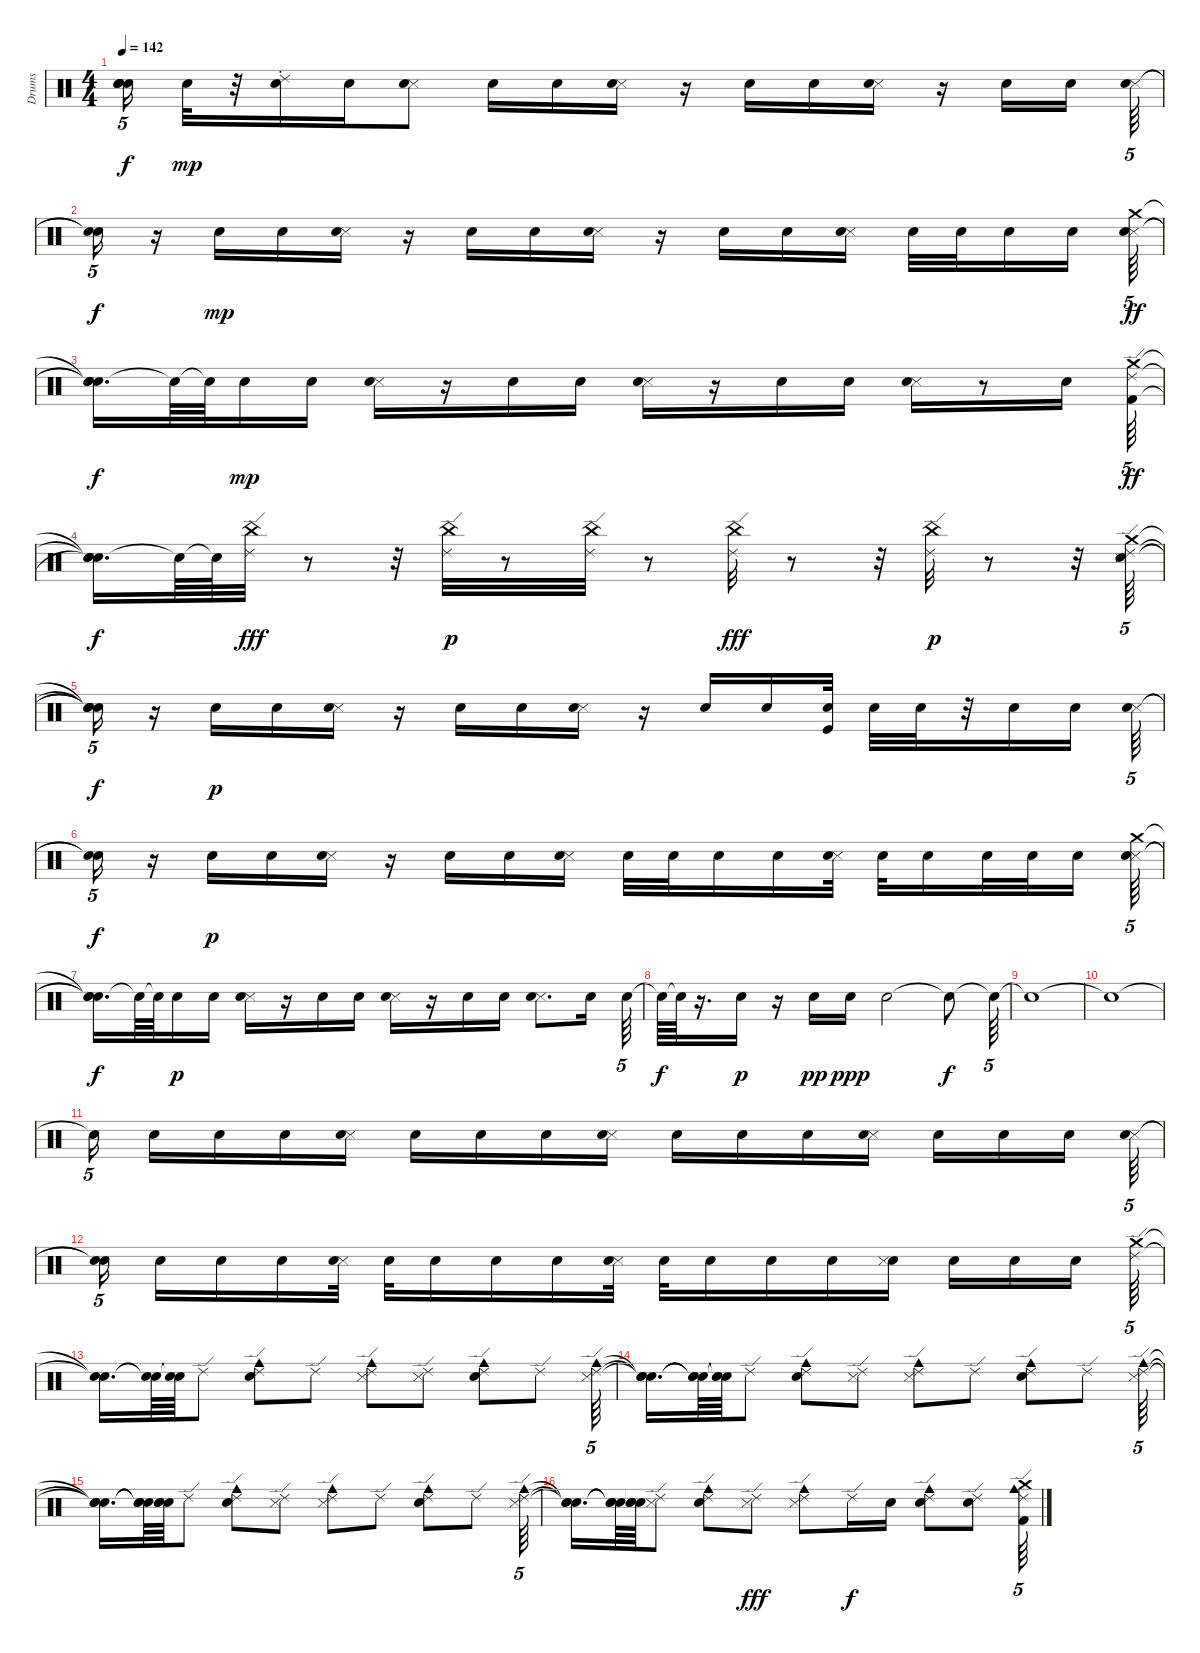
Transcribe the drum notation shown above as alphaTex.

\track ("Drums" "Drums") {instrument percussion}
\staff {score}
\articulation defaults
\ts (4 4)
\tempo 142
\clef neutral
\ks c
("Snare (hit)"{t} "Snare (hit)"{t} "Snare (hit)"{t} "Snare (hit)"{t}).16{tu (5 4) dy f} "Snare (hit) 2".32{dy mp} r.32 ("Snare (hit) 2" "Ride (choke) 2").16 "Snare (hit) 2".16 ("Metronome (hit)" "Snare (hit) 2").8 "Snare (hit) 2".16 "Snare (hit) 2".16 ("Metronome (hit)" "Snare (hit) 2").16 r.16 "Snare (hit) 2".16 "Snare (hit) 2".16 ("Metronome (hit)" "Snare (hit) 2").16 r.16 "Snare (hit) 2".16 "Snare (hit) 2".16 ("Metronome (hit)" "Snare (hit) 2").64{tu (5 4)} |
("Snare (hit)"{t} "Snare (hit)"{t}).16{tu (5 4) dy f} r.16 "Snare (hit) 2".16{dy mp} "Snare (hit) 2".16 ("Metronome (hit)" "Snare (hit) 2").16 r.16 "Snare (hit) 2".16 "Snare (hit) 2".16 ("Metronome (hit)" "Snare (hit) 2").16 r.16 "Snare (hit) 2".16 "Snare (hit) 2".16 ("Metronome (hit)" "Snare (hit) 2").16 "Snare (hit) 2".32 "Snare (hit) 2".32 "Snare (hit) 2".16 "Snare (hit) 2".16 ("Metronome (hit)" "Snare (hit) 2" "Crash medium (hit)").64{tu (5 4) dy ff} |
("Snare (hit)"{t} "Snare (hit)"{t} "Snare (hit)"{t}).16{d dy f} "Snare (hit)"{t}.64 "Snare (hit)"{t}.64 "Snare (hit) 2".16{dy mp} "Snare (hit) 2".16 ("Metronome (hit)" "Snare (hit) 2").16 r.16 "Snare (hit) 2".16 "Snare (hit) 2".16 ("Metronome (hit)" "Snare (hit) 2").16 r.16 "Snare (hit) 2".16 "Snare (hit) 2".16 ("Metronome (hit)" "Snare (hit) 2").16 r.8 "Snare (hit) 2".16 ("Crash medium (hit)" "Kick (hit) 2" "Ride (edge) 2").64{tu (5 4) dy ff} |
("Snare (hit)"{t} "Snare (hit)"{t} "Snare (hit)"{t}).16{d dy f} "Snare (hit)"{t}.64 "Snare (hit)"{t}.64 ("China (hit)" "Ride (edge) 2").32{dy fff} r.8 r.32 ("China (hit)" "Ride (edge) 2").32{dy p} r.8 ("China (hit)" "Ride (edge) 2").32 r.8 ("China (hit)" "Ride (edge) 2").32{dy fff} r.8 r.32 ("China (hit)" "Ride (edge) 2").32{dy p} r.8 r.32 ("Metronome (hit)" "Snare (hit) 2" "Crash medium (hit)" "Ride (edge) 2").64{tu (5 4)} |
("Snare (hit)"{t} "Snare (hit)"{t} "Snare (hit)"{t} "Snare (hit)"{t}).16{tu (5 4) dy f} r.16 "Snare (hit) 2".16{dy p} "Snare (hit) 2".16 ("Metronome (hit)" "Snare (hit) 2").16 r.16 "Snare (hit) 2".16 "Snare (hit) 2".16 ("Metronome (hit)" "Snare (hit) 2").16 r.16 "Snare (hit) 2".16 "Snare (hit) 2".16 ("Snare (hit) 2" "Kick (hit)").32 "Snare (hit) 2".32 "Snare (hit) 2".32 r.32 "Snare (hit) 2".16 "Snare (hit) 2".16 ("Metronome (hit)" "Snare (hit) 2").64{tu (5 4)} |
("Snare (hit)"{t} "Snare (hit)"{t}).16{tu (5 4) dy f} r.16 "Snare (hit) 2".16{dy p} "Snare (hit) 2".16 ("Metronome (hit)" "Snare (hit) 2").16 r.16 "Snare (hit) 2".16 "Snare (hit) 2".16 ("Metronome (hit)" "Snare (hit) 2").16 "Snare (hit) 2".32 "Snare (hit) 2".32 "Snare (hit) 2".16 "Snare (hit) 2".16 ("Metronome (hit)" "Snare (hit) 2").32 "Snare (hit) 2".32 "Snare (hit) 2".16 "Snare (hit) 2".32 "Snare (hit) 2".32 "Snare (hit) 2".16 ("Metronome (hit)" "Snare (hit) 2" "Crash medium (hit)").64{tu (5 4)} |
("Snare (hit)"{t} "Snare (hit)"{t} "Snare (hit)"{t}).16{d dy f} "Snare (hit)"{t}.64 "Snare (hit)"{t}.64 "Snare (hit) 2".16{dy p} "Snare (hit) 2".16 ("Metronome (hit)" "Snare (hit) 2").16 r.16 "Snare (hit) 2".16 "Snare (hit) 2".16 ("Metronome (hit)" "Snare (hit) 2").16 r.16 "Snare (hit) 2".16 "Snare (hit) 2".16 ("Metronome (hit)" "Snare (hit) 2").8{d} "Snare (hit) 2".16 "Snare (hit) 2".64{tu (5 4)} |
"Snare (hit)"{t}.64{dy f} "Snare (hit)"{t}.64 r.16{d} "Snare (hit) 2".16{dy p} r.16 "Snare (hit) 2".16{dy pp} "Snare (hit) 2".16{dy ppp} "Snare (hit) 2".2 "Snare (hit)"{t}.8{dy f} "Snare (hit)"{t}.64{tu (5 4)} |
"Snare (hit)"{t}.1 |
"Snare (hit)"{t}.1 |
"Snare (hit)"{t}.16{tu (5 4)} "Snare (hit) 2".16{volume 0} "Snare (hit) 2".16{volume 1} "Snare (hit) 2".16{volume 1} ("Metronome (hit)" "Snare (hit) 2").16{volume 2} "Snare (hit) 2".16{volume 2} "Snare (hit) 2".16{volume 3} "Snare (hit) 2".16{volume 3} ("Metronome (hit)" "Snare (hit) 2").16{volume 4} "Snare (hit) 2".16{volume 4} "Snare (hit) 2".16{volume 5} "Snare (hit) 2".16{volume 5} ("Metronome (hit)" "Snare (hit) 2").16{volume 6} "Snare (hit) 2".16{volume 6} "Snare (hit) 2".16{volume 7} "Snare (hit) 2".16{volume 7} ("Metronome (hit)" "Snare (hit) 2").64{tu (5 4) volume 8} |
("Snare (hit)"{t} "Snare (hit)"{t}).16{tu (5 4)} "Snare (hit) 2".16{volume 8} "Snare (hit) 2".16{volume 8} "Snare (hit) 2".16{volume 9} ("Metronome (hit)" "Snare (hit) 2").32{volume 10} "Snare (hit) 2".32{volume 10} "Snare (hit) 2".16{volume 10} "Snare (hit) 2".16{volume 10} "Snare (hit) 2".16{volume 11} ("Metronome (hit)" "Snare (hit) 2").32{volume 11} "Snare (hit) 2".32{volume 12} "Snare (hit) 2".16{volume 12} "Snare (hit) 2".16{volume 12} "Snare (hit) 2".16{volume 13} ("Snare (hit) 2" "Metronome (hit)").16{volume 13} "Snare (hit) 2".16{volume 14} "Snare (hit) 2".16{volume 14} "Snare (hit) 2".16{volume 15} ("Crash medium (hit)" "Ride (edge) 2").64{tu (5 4) volume 15} |
("Snare (hit)"{t} "Snare (hit)"{t}).16{d} ("Snare (hit)"{t} "Snare (hit)"{t}).64 ("Snare (hit)"{t} "Snare (hit)"{t}).64 "Ride (edge) 2".8 ("Cowbell medium (hit)" "Ride (edge) 2" "Snare (hit) 2").8 "Ride (edge) 2".8 ("Cowbell medium (hit)" "Ride (edge) 2" "Metronome (hit)").8 ("Metronome (hit)" "Ride (edge) 2").8 ("Cowbell medium (hit)" "Ride (edge) 2" "Snare (hit) 2").8 "Ride (edge) 2".8 ("Metronome (hit)" "Cowbell medium (hit)" "Ride (edge) 2").64{tu (5 4)} |
("Snare (hit)"{t} "Snare (hit)"{t} "Snare (hit)"{t}).16{d} ("Snare (hit)"{t} "Snare (hit)"{t} "Snare (hit)"{t}).64 ("Snare (hit)"{t} "Snare (hit)"{t} "Snare (hit)"{t}).64 "Ride (edge) 2".8 ("Cowbell medium (hit)" "Ride (edge) 2" "Snare (hit) 2").8 ("Ride (edge) 2" "Metronome (hit)").8 ("Cowbell medium (hit)" "Ride (edge) 2" "Metronome (hit)").8 "Ride (edge) 2".8 ("Cowbell medium (hit)" "Ride (edge) 2" "Snare (hit) 2").8 "Ride (edge) 2".8 ("Metronome (hit)" "Cowbell medium (hit)" "Ride (edge) 2").64{tu (5 4)} |
("Snare (hit)"{t} "Snare (hit)"{t} "Snare (hit)"{t}).16{d} ("Snare (hit)"{t} "Snare (hit)"{t} "Snare (hit)"{t}).64 ("Snare (hit)"{t} "Snare (hit)"{t} "Snare (hit)"{t}).64 "Ride (edge) 2".8 ("Cowbell medium (hit)" "Ride (edge) 2" "Snare (hit) 2").8 ("Ride (edge) 2" "Metronome (hit)").8 ("Cowbell medium (hit)" "Ride (edge) 2" "Metronome (hit)").8 "Ride (edge) 2".8 ("Cowbell medium (hit)" "Ride (edge) 2" "Snare (hit) 2").8 "Ride (edge) 2".8 ("Metronome (hit)" "Cowbell medium (hit)" "Ride (edge) 2").64{tu (5 4)} |
("Snare (hit)"{t} "Snare (hit)"{t} "Snare (hit)"{t}).16{d} ("Snare (hit)"{t} "Snare (hit)"{t} "Snare (hit)"{t}).64 ("Snare (hit)"{t} "Snare (hit)"{t} "Snare (hit)"{t}).64 ("Metronome (hit)" "Ride (edge) 2").8 ("Cowbell medium (hit)" "Ride (edge) 2" "Snare (hit) 2").8 ("Ride (edge) 2" "Metronome (hit)").8{dy fff} ("Cowbell medium (hit)" "Ride (edge) 2" "Metronome (hit)").8 "Ride (edge) 2".16{dy f} "Snare (hit) 2".16 ("Snare (hit) 2" "Cowbell medium (hit)" "Ride (edge) 2").8 ("Snare (hit) 2" "Ride (edge) 2").8 ("Crash medium (hit)" "Cowbell medium (hit)" "Ride (edge) 2" "Kick (hit) 2").64{tu (5 4)}
